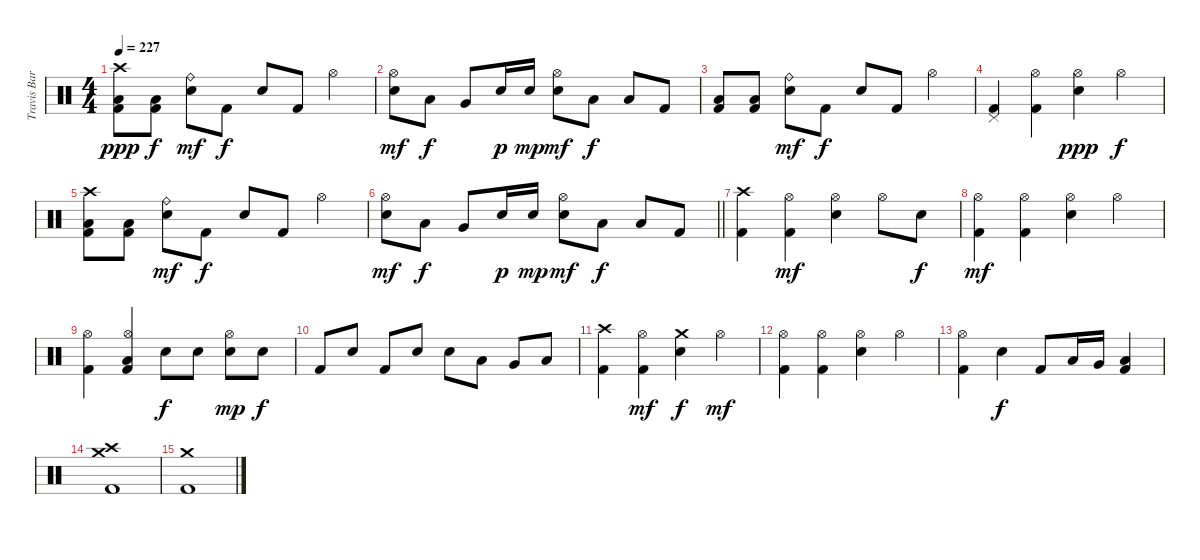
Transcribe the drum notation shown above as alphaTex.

\track ("Travis Barker - Drum" "Travis Bar") {instrument percussion}
\staff {score}
\articulation defaults
\ts (4 4)
\tempo 227
\clef neutral
\ks c
("Crash high (hit)" "Low Floor Tom (hit)" "Kick (hit) 2").8{dy ppp} ("Low Floor Tom (hit)" "Kick (hit) 2").8{dy f} ("Ride (bell)" "Electric Snare (hit)").8{dy mf} "Kick (hit) 2".8{dy f} "Electric Snare (hit)".8 "Kick (hit) 2".8 "Hi-Hat (open)".4 |
("Hi-Hat (open)" "Electric Snare (hit)").8{dy mf} "Low Tom (hit)".8{dy f} "Very Low Tom (hit)".8 "Electric Snare (hit)".16{dy p} "Electric Snare (hit)".16{dy mp} ("Hi-Hat (open)" "Electric Snare (hit)").8{dy mf} "Low Tom (hit)".8{dy f} "Low Floor Tom (hit)".8 "Kick (hit) 2".8 |
("Low Floor Tom (hit)" "Kick (hit) 2").8 ("Low Floor Tom (hit)" "Kick (hit) 2").8 ("Ride (bell)" "Electric Snare (hit)").8{dy mf} "Kick (hit) 2".8{dy f} "Electric Snare (hit)".8 "Kick (hit) 2".8 "Hi-Hat (open)".4 |
("Pedal Hi-Hat (hit)" "Kick (hit) 2").4 ("Hi-Hat (open)" "Kick (hit) 2").4 ("Hi-Hat (open)" "Electric Snare (hit)").4{dy ppp} "Hi-Hat (open)".4{dy f} |
("Crash high (hit)" "Low Floor Tom (hit)" "Kick (hit) 2").8 ("Low Floor Tom (hit)" "Kick (hit) 2").8 ("Ride (bell)" "Electric Snare (hit)").8{dy mf} "Kick (hit) 2".8{dy f} "Electric Snare (hit)".8 "Kick (hit) 2".8 "Hi-Hat (open)".4 |
\barLineRight lightlight
("Hi-Hat (open)" "Electric Snare (hit)").8{dy mf} "Low Tom (hit)".8{dy f} "Very Low Tom (hit)".8 "Electric Snare (hit)".16{dy p} "Electric Snare (hit)".16{dy mp} ("Hi-Hat (open)" "Electric Snare (hit)").8{dy mf} "Low Tom (hit)".8{dy f} "Low Floor Tom (hit)".8 "Kick (hit) 2".8 |
("Crash high (hit)" "Kick (hit) 2").4 ("Hi-Hat (open)" "Kick (hit) 2").4{dy mf} ("Hi-Hat (open)" "Electric Snare (hit)").4 "Hi-Hat (open)".8 "Electric Snare (hit)".8{dy f} |
("Hi-Hat (open)" "Kick (hit) 2").4{dy mf} ("Hi-Hat (open)" "Kick (hit) 2").4 ("Hi-Hat (open)" "Electric Snare (hit)").4 "Hi-Hat (open)".4 |
("Hi-Hat (open)" "Kick (hit) 2").4 ("Hi-Hat (open)" "Low Tom (hit)" "Kick (hit) 2").4 "Electric Snare (hit)".8{dy f} "Electric Snare (hit)".8 ("Hi-Hat (open)" "Electric Snare (hit)").8{dy mp} "Electric Snare (hit)".8{dy f} |
"Kick (hit) 2".8 "Electric Snare (hit)".8 "Kick (hit) 2".8 "Electric Snare (hit)".8 "Electric Snare (hit)".8 "Low Tom (hit)".8 "Very Low Tom (hit)".8 "Low Floor Tom (hit)".8 |
("Crash high (hit)" "Kick (hit) 2").4 ("Hi-Hat (open)" "Kick (hit) 2").4{dy mf} ("Crash medium (hit)" "Electric Snare (hit)").4{dy f} "Hi-Hat (open)".4{dy mf} |
("Hi-Hat (open)" "Kick (hit) 2").4 ("Hi-Hat (open)" "Kick (hit) 2").4 ("Hi-Hat (open)" "Electric Snare (hit)").4 "Hi-Hat (open)".4 |
("Hi-Hat (open)" "Kick (hit) 2").4 "Electric Snare (hit)".4{dy f} "Kick (hit) 2".8 "Low Tom (hit)".16 "Very Low Tom (hit)".16 ("Low Floor Tom (hit)" "Kick (hit) 2").4 |
("Crash medium (hit)" "Crash high (hit)" "Kick (hit) 2").1 |
("Crash medium (hit)" "Kick (hit) 2").1
